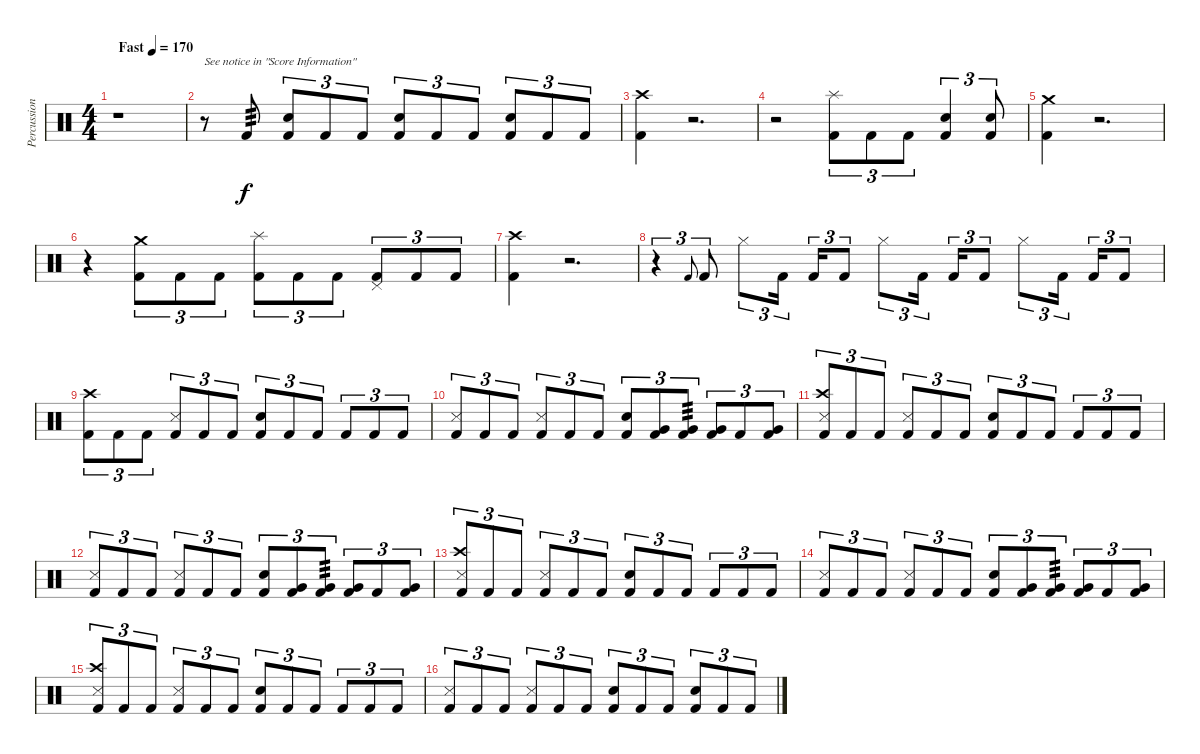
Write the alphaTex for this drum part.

\track ("Percussion" "Percussion") {instrument percussion}
\staff {score}
\articulation defaults
\ts (4 4)
\tempo (170 "Fast")
\clef neutral
\ks c
r.1{dy f} |
r.8{txt "See notice in \"Score Information\""} "Kick (hit) 2".8{tp 3} ("Snare (hit) 2" "Kick (hit) 2").8{tu (3 2)} "Kick (hit) 2".8{tu (3 2)} "Kick (hit) 2".8{tu (3 2)} ("Snare (hit) 2" "Kick (hit) 2").8{tu (3 2)} "Kick (hit) 2".8{tu (3 2)} "Kick (hit) 2".8{tu (3 2)} ("Snare (hit) 2" "Kick (hit) 2").8{tu (3 2)} "Kick (hit) 2".8{tu (3 2)} "Kick (hit) 2".8{tu (3 2)} |
("Crash high (hit)" "Kick (hit) 2").4 r.2{d} |
r.2 ("Splash (hit)" "Kick (hit) 2").8{tu (3 2)} "Kick (hit) 2".8{tu (3 2)} "Kick (hit) 2".8{tu (3 2)} ("Snare (hit) 2" "Kick (hit) 2").4{tu (3 2)} ("Snare (hit) 2" "Kick (hit) 2").8{tu (3 2)} |
("Crash medium (hit)" "Kick (hit) 2").4 r.2{d} |
r.4 ("Crash medium (hit)" "Kick (hit) 2").8{tu (3 2)} "Kick (hit) 2".8{tu (3 2)} "Kick (hit) 2".8{tu (3 2)} ("Splash (hit)" "Kick (hit) 2").8{tu (3 2)} "Kick (hit) 2".8{tu (3 2)} "Kick (hit) 2".8{tu (3 2)} ("Pedal Hi-Hat (hit)" "Kick (hit) 2").8{tu (3 2)} "Kick (hit) 2".8{tu (3 2)} "Kick (hit) 2".8{tu (3 2)} |
("Crash high (hit)" "Kick (hit) 2").4 r.2{d} |
r.4{tu (3 2)} "Kick (hit) 2".8{gr onbeat} "Kick (hit) 2".8{tu (3 2)} "Hi-Hat (closed)".8{tu (3 2)} "Kick (hit) 2".16{tu (3 2) beam splitsecondary} "Kick (hit) 2".16{tu (3 2)} "Kick (hit) 2".8{tu (3 2)} "Hi-Hat (closed)".8{tu (3 2)} "Kick (hit) 2".16{tu (3 2) beam splitsecondary} "Kick (hit) 2".16{tu (3 2)} "Kick (hit) 2".8{tu (3 2)} "Hi-Hat (closed)".8{tu (3 2)} "Kick (hit) 2".16{tu (3 2) beam splitsecondary} "Kick (hit) 2".16{tu (3 2)} "Kick (hit) 2".8{tu (3 2)} |
("Crash high (hit)" "Kick (hit) 2").8{tu (3 2)} "Kick (hit) 2".8{tu (3 2)} "Kick (hit) 2".8{tu (3 2)} ("Snare (side stick) 3" "Kick (hit) 2").8{tu (3 2)} "Kick (hit) 2".8{tu (3 2)} "Kick (hit) 2".8{tu (3 2)} ("Snare (hit) 2" "Kick (hit) 2").8{tu (3 2)} "Kick (hit) 2".8{tu (3 2)} "Kick (hit) 2".8{tu (3 2)} "Kick (hit) 2".8{tu (3 2)} "Kick (hit) 2".8{tu (3 2)} "Kick (hit) 2".8{tu (3 2)} |
("Snare (side stick) 3" "Kick (hit) 2").8{tu (3 2)} "Kick (hit) 2".8{tu (3 2)} "Kick (hit) 2".8{tu (3 2)} ("Snare (side stick) 3" "Kick (hit) 2").8{tu (3 2)} "Kick (hit) 2".8{tu (3 2)} "Kick (hit) 2".8{tu (3 2)} ("Snare (hit) 2" "Kick (hit) 2").8{tu (3 2)} ("Very Low Tom (hit)" "Kick (hit) 2").8{tu (3 2)} ("Very Low Tom (hit)" "Kick (hit) 2").8{tu (3 2) tp 3} ("Very Low Tom (hit)" "Kick (hit) 2").8{tu (3 2)} "Kick (hit) 2".8{tu (3 2)} ("Very Low Tom (hit)" "Kick (hit) 2").8{tu (3 2)} |
("Crash high (hit)" "Snare (side stick) 3" "Kick (hit) 2").8{tu (3 2)} "Kick (hit) 2".8{tu (3 2)} "Kick (hit) 2".8{tu (3 2)} ("Snare (side stick) 3" "Kick (hit) 2").8{tu (3 2)} "Kick (hit) 2".8{tu (3 2)} "Kick (hit) 2".8{tu (3 2)} ("Snare (hit) 2" "Kick (hit) 2").8{tu (3 2)} "Kick (hit) 2".8{tu (3 2)} "Kick (hit) 2".8{tu (3 2)} "Kick (hit) 2".8{tu (3 2)} "Kick (hit) 2".8{tu (3 2)} "Kick (hit) 2".8{tu (3 2)} |
("Snare (side stick) 3" "Kick (hit) 2").8{tu (3 2)} "Kick (hit) 2".8{tu (3 2)} "Kick (hit) 2".8{tu (3 2)} ("Snare (side stick) 3" "Kick (hit) 2").8{tu (3 2)} "Kick (hit) 2".8{tu (3 2)} "Kick (hit) 2".8{tu (3 2)} ("Snare (hit) 2" "Kick (hit) 2").8{tu (3 2)} ("Very Low Tom (hit)" "Kick (hit) 2").8{tu (3 2)} ("Very Low Tom (hit)" "Kick (hit) 2").8{tu (3 2) tp 3} ("Very Low Tom (hit)" "Kick (hit) 2").8{tu (3 2)} "Kick (hit) 2".8{tu (3 2)} ("Very Low Tom (hit)" "Kick (hit) 2").8{tu (3 2)} |
("Crash high (hit)" "Snare (side stick) 3" "Kick (hit) 2").8{tu (3 2)} "Kick (hit) 2".8{tu (3 2)} "Kick (hit) 2".8{tu (3 2)} ("Snare (side stick) 3" "Kick (hit) 2").8{tu (3 2)} "Kick (hit) 2".8{tu (3 2)} "Kick (hit) 2".8{tu (3 2)} ("Snare (hit) 2" "Kick (hit) 2").8{tu (3 2)} "Kick (hit) 2".8{tu (3 2)} "Kick (hit) 2".8{tu (3 2)} "Kick (hit) 2".8{tu (3 2)} "Kick (hit) 2".8{tu (3 2)} "Kick (hit) 2".8{tu (3 2)} |
("Snare (side stick) 3" "Kick (hit) 2").8{tu (3 2)} "Kick (hit) 2".8{tu (3 2)} "Kick (hit) 2".8{tu (3 2)} ("Snare (side stick) 3" "Kick (hit) 2").8{tu (3 2)} "Kick (hit) 2".8{tu (3 2)} "Kick (hit) 2".8{tu (3 2)} ("Snare (hit) 2" "Kick (hit) 2").8{tu (3 2)} ("Very Low Tom (hit)" "Kick (hit) 2").8{tu (3 2)} ("Very Low Tom (hit)" "Kick (hit) 2").8{tu (3 2) tp 3} ("Very Low Tom (hit)" "Kick (hit) 2").8{tu (3 2)} "Kick (hit) 2".8{tu (3 2)} ("Very Low Tom (hit)" "Kick (hit) 2").8{tu (3 2)} |
("Crash high (hit)" "Snare (side stick) 3" "Kick (hit) 2").8{tu (3 2)} "Kick (hit) 2".8{tu (3 2)} "Kick (hit) 2".8{tu (3 2)} ("Snare (side stick) 3" "Kick (hit) 2").8{tu (3 2)} "Kick (hit) 2".8{tu (3 2)} "Kick (hit) 2".8{tu (3 2)} ("Snare (hit) 2" "Kick (hit) 2").8{tu (3 2)} "Kick (hit) 2".8{tu (3 2)} "Kick (hit) 2".8{tu (3 2)} "Kick (hit) 2".8{tu (3 2)} "Kick (hit) 2".8{tu (3 2)} "Kick (hit) 2".8{tu (3 2)} |
("Snare (side stick) 3" "Kick (hit) 2").8{tu (3 2)} "Kick (hit) 2".8{tu (3 2)} "Kick (hit) 2".8{tu (3 2)} ("Snare (side stick) 3" "Kick (hit) 2").8{tu (3 2)} "Kick (hit) 2".8{tu (3 2)} "Kick (hit) 2".8{tu (3 2)} ("Snare (hit) 2" "Kick (hit) 2").8{tu (3 2)} "Kick (hit) 2".8{tu (3 2)} "Kick (hit) 2".8{tu (3 2)} ("Snare (hit) 2" "Kick (hit) 2").8{tu (3 2)} "Kick (hit) 2".8{tu (3 2)} "Kick (hit) 2".8{tu (3 2)}
